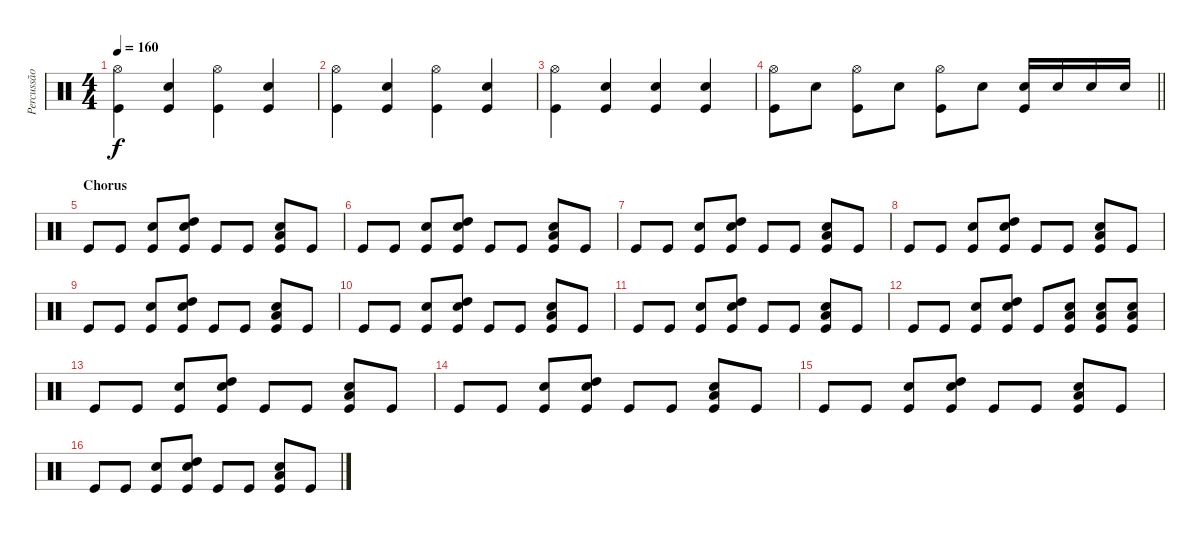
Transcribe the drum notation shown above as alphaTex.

\track ("Percussão" "Percussão") {instrument percussion}
\staff {score}
\articulation defaults
\ts (4 4)
\tempo 160
\clef neutral
\ks c
("Hi-Hat (open)" "Kick (hit)").4{dy f} ("Snare (hit) 2" "Kick (hit)").4 ("Hi-Hat (open)" "Kick (hit)").4 ("Snare (hit) 2" "Kick (hit)").4 |
("Hi-Hat (open)" "Kick (hit)").4 ("Snare (hit) 2" "Kick (hit)").4 ("Hi-Hat (open)" "Kick (hit)").4 ("Snare (hit) 2" "Kick (hit)").4 |
("Hi-Hat (open)" "Kick (hit)").4 ("Snare (hit) 2" "Kick (hit)").4 ("Snare (hit) 2" "Kick (hit)").4 ("Snare (hit) 2" "Kick (hit)").4 |
\barLineRight lightlight
("Hi-Hat (open)" "Kick (hit)").8 "Snare (hit) 2".8 ("Hi-Hat (open)" "Kick (hit)").8 "Snare (hit) 2".8 ("Hi-Hat (open)" "Kick (hit)").8 "Snare (hit) 2".8 ("Snare (hit) 2" "Kick (hit)").16 "Snare (hit) 2".16 "Snare (hit) 2".16 "Snare (hit) 2".16 |
\section ("" "Chorus")
"Kick (hit)".8 "Kick (hit)".8 ("Snare (hit) 2" "Kick (hit)").8 ("Snare (hit) 2" "High Tom (hit)" "Kick (hit)").8 "Kick (hit)".8 "Kick (hit)".8 ("Snare (hit) 2" "Low Tom (hit)" "Kick (hit)").8 "Kick (hit)".8 |
"Kick (hit)".8 "Kick (hit)".8 ("Snare (hit) 2" "Kick (hit)").8 ("Snare (hit) 2" "High Tom (hit)" "Kick (hit)").8 "Kick (hit)".8 "Kick (hit)".8 ("Snare (hit) 2" "Low Tom (hit)" "Kick (hit)").8 "Kick (hit)".8 |
"Kick (hit)".8 "Kick (hit)".8 ("Snare (hit) 2" "Kick (hit)").8 ("Snare (hit) 2" "High Tom (hit)" "Kick (hit)").8 "Kick (hit)".8 "Kick (hit)".8 ("Snare (hit) 2" "Low Tom (hit)" "Kick (hit)").8 "Kick (hit)".8 |
"Kick (hit)".8 "Kick (hit)".8 ("Snare (hit) 2" "Kick (hit)").8 ("Snare (hit) 2" "High Tom (hit)" "Kick (hit)").8 "Kick (hit)".8 "Kick (hit)".8 ("Snare (hit) 2" "Low Tom (hit)" "Kick (hit)").8 "Kick (hit)".8 |
"Kick (hit)".8 "Kick (hit)".8 ("Snare (hit) 2" "Kick (hit)").8 ("Snare (hit) 2" "High Tom (hit)" "Kick (hit)").8 "Kick (hit)".8 "Kick (hit)".8 ("Snare (hit) 2" "Low Tom (hit)" "Kick (hit)").8 "Kick (hit)".8 |
"Kick (hit)".8 "Kick (hit)".8 ("Snare (hit) 2" "Kick (hit)").8 ("Snare (hit) 2" "High Tom (hit)" "Kick (hit)").8 "Kick (hit)".8 "Kick (hit)".8 ("Snare (hit) 2" "Low Tom (hit)" "Kick (hit)").8 "Kick (hit)".8 |
"Kick (hit)".8 "Kick (hit)".8 ("Snare (hit) 2" "Kick (hit)").8 ("Snare (hit) 2" "High Tom (hit)" "Kick (hit)").8 "Kick (hit)".8 "Kick (hit)".8 ("Snare (hit) 2" "Low Tom (hit)" "Kick (hit)").8 "Kick (hit)".8 |
"Kick (hit)".8 "Kick (hit)".8 ("Snare (hit) 2" "Kick (hit)").8 ("Snare (hit) 2" "High Tom (hit)" "Kick (hit)").8 "Kick (hit)".8 ("Snare (hit) 2" "Low Tom (hit)" "Kick (hit)").8 ("Snare (hit) 2" "Low Tom (hit)" "Kick (hit)").8 ("Snare (hit) 2" "Low Tom (hit)" "Kick (hit)").8 |
"Kick (hit)".8 "Kick (hit)".8 ("Snare (hit) 2" "Kick (hit)").8 ("Snare (hit) 2" "High Tom (hit)" "Kick (hit)").8 "Kick (hit)".8 "Kick (hit)".8 ("Snare (hit) 2" "Low Tom (hit)" "Kick (hit)").8 "Kick (hit)".8 |
"Kick (hit)".8 "Kick (hit)".8 ("Snare (hit) 2" "Kick (hit)").8 ("Snare (hit) 2" "High Tom (hit)" "Kick (hit)").8 "Kick (hit)".8 "Kick (hit)".8 ("Snare (hit) 2" "Low Tom (hit)" "Kick (hit)").8 "Kick (hit)".8 |
"Kick (hit)".8 "Kick (hit)".8 ("Snare (hit) 2" "Kick (hit)").8 ("Snare (hit) 2" "High Tom (hit)" "Kick (hit)").8 "Kick (hit)".8 "Kick (hit)".8 ("Snare (hit) 2" "Low Tom (hit)" "Kick (hit)").8 "Kick (hit)".8 |
"Kick (hit)".8 "Kick (hit)".8 ("Snare (hit) 2" "Kick (hit)").8 ("Snare (hit) 2" "High Tom (hit)" "Kick (hit)").8 "Kick (hit)".8 "Kick (hit)".8 ("Snare (hit) 2" "Low Tom (hit)" "Kick (hit)").8 "Kick (hit)".8
